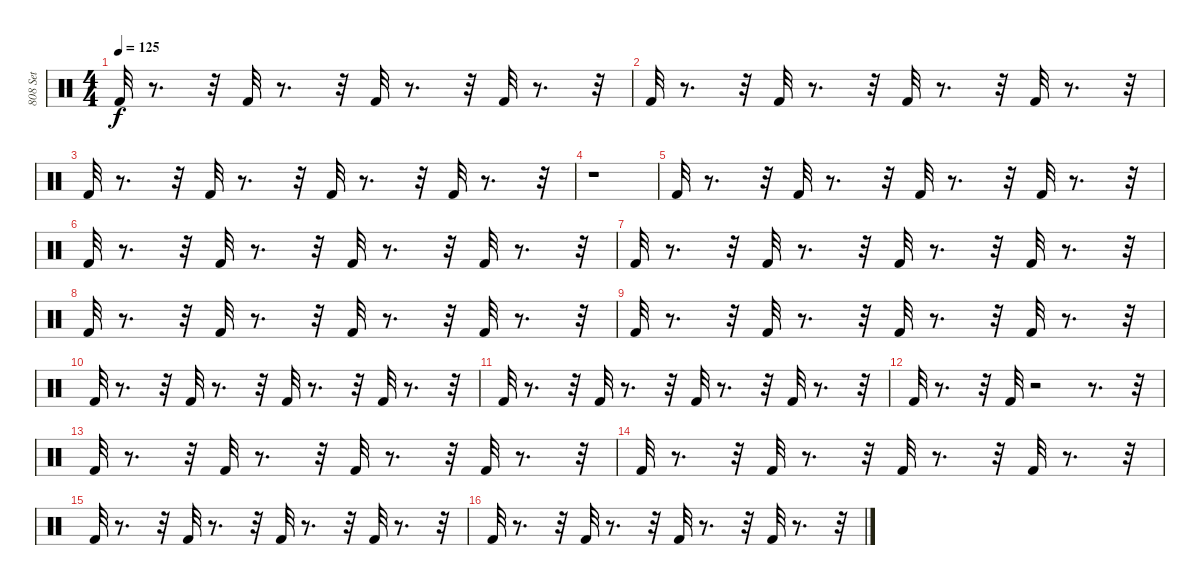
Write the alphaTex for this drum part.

\track ("808 Set" "808 Set") {instrument percussion}
\staff {score}
\articulation defaults
\ts (4 4)
\tempo 125
\clef neutral
\ks c "Kick (hit) 2".32{dy f}
r.8{d} r.32 "Kick (hit) 2".32 r.8{d} r.32 "Kick (hit) 2".32 r.8{d} r.32 "Kick (hit) 2".32 r.8{d} r.32 |
"Kick (hit) 2".32 r.8{d} r.32 "Kick (hit) 2".32 r.8{d} r.32 "Kick (hit) 2".32 r.8{d} r.32 "Kick (hit) 2".32 r.8{d} r.32 |
"Kick (hit) 2".32 r.8{d} r.32 "Kick (hit) 2".32 r.8{d} r.32 "Kick (hit) 2".32 r.8{d} r.32 "Kick (hit) 2".32 r.8{d} r.32 |
r.1 |
"Kick (hit) 2".32 r.8{d} r.32 "Kick (hit) 2".32 r.8{d} r.32 "Kick (hit) 2".32 r.8{d} r.32 "Kick (hit) 2".32 r.8{d} r.32 |
"Kick (hit) 2".32 r.8{d} r.32 "Kick (hit) 2".32 r.8{d} r.32 "Kick (hit) 2".32 r.8{d} r.32 "Kick (hit) 2".32 r.8{d} r.32 |
"Kick (hit) 2".32 r.8{d} r.32 "Kick (hit) 2".32 r.8{d} r.32 "Kick (hit) 2".32 r.8{d} r.32 "Kick (hit) 2".32 r.8{d} r.32 |
"Kick (hit) 2".32 r.8{d} r.32 "Kick (hit) 2".32 r.8{d} r.32 "Kick (hit) 2".32 r.8{d} r.32 "Kick (hit) 2".32 r.8{d} r.32 |
"Kick (hit) 2".32 r.8{d} r.32 "Kick (hit) 2".32 r.8{d} r.32 "Kick (hit) 2".32 r.8{d} r.32 "Kick (hit) 2".32 r.8{d} r.32 |
"Kick (hit) 2".32 r.8{d} r.32 "Kick (hit) 2".32 r.8{d} r.32 "Kick (hit) 2".32 r.8{d} r.32 "Kick (hit) 2".32 r.8{d} r.32 |
"Kick (hit) 2".32 r.8{d} r.32 "Kick (hit) 2".32 r.8{d} r.32 "Kick (hit) 2".32 r.8{d} r.32 "Kick (hit) 2".32 r.8{d} r.32 |
"Kick (hit) 2".32 r.8{d} r.32 "Kick (hit) 2".32 r.2 r.8{d} r.32 |
"Kick (hit) 2".32 r.8{d} r.32 "Kick (hit) 2".32 r.8{d} r.32 "Kick (hit) 2".32 r.8{d} r.32 "Kick (hit) 2".32 r.8{d} r.32 |
"Kick (hit) 2".32 r.8{d} r.32 "Kick (hit) 2".32 r.8{d} r.32 "Kick (hit) 2".32 r.8{d} r.32 "Kick (hit) 2".32 r.8{d} r.32 |
"Kick (hit) 2".32 r.8{d} r.32 "Kick (hit) 2".32 r.8{d} r.32 "Kick (hit) 2".32 r.8{d} r.32 "Kick (hit) 2".32 r.8{d} r.32 |
"Kick (hit) 2".32 r.8{d} r.32 "Kick (hit) 2".32 r.8{d} r.32 "Kick (hit) 2".32 r.8{d} r.32 "Kick (hit) 2".32 r.8{d} r.32
